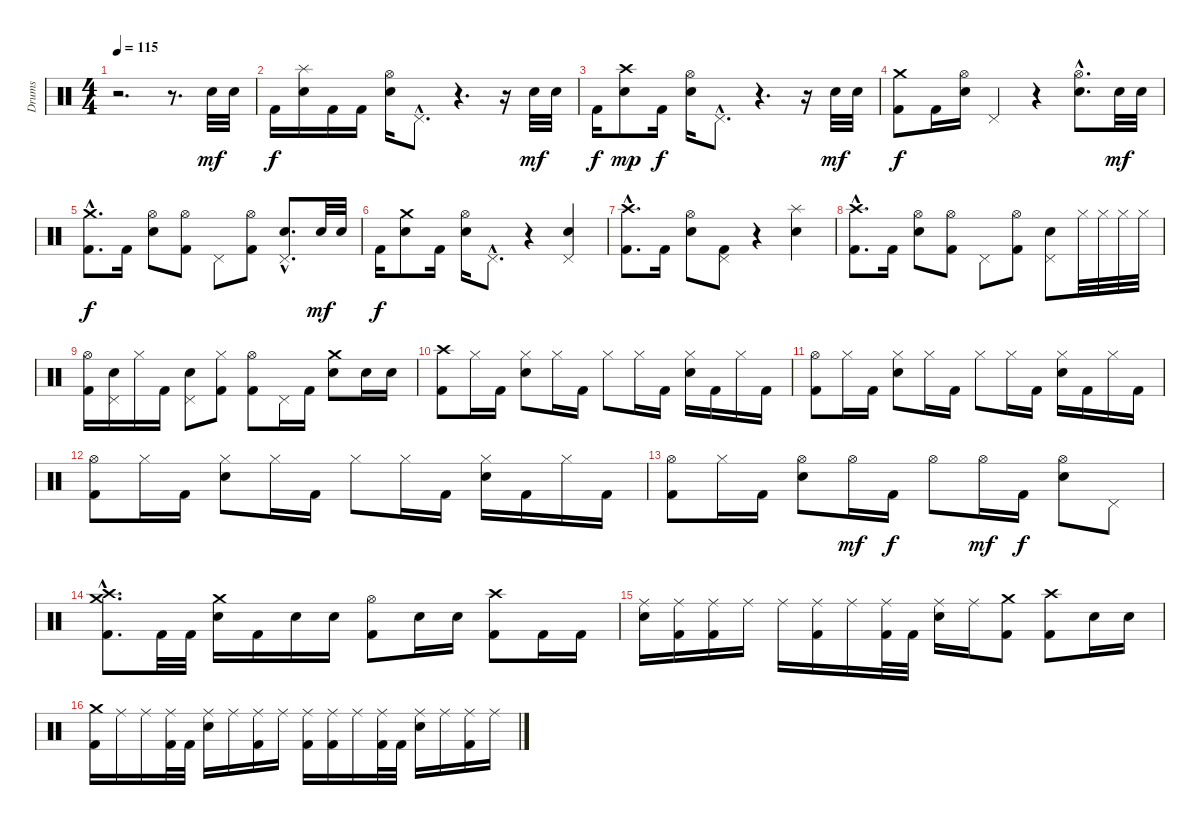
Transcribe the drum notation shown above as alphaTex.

\track ("Drums" "Drums") {instrument percussion}
\staff {score}
\articulation defaults
\ts (4 4)
\tempo 115
\clef neutral
\ks c
r.2{d dy fff} r.8{d} "Electric Snare (hit)".32{dy mf} "Electric Snare (hit)".32 |
"Kick (hit) 2".16{dy f} ("Splash (hit)" "Electric Snare (hit)").16 "Kick (hit) 2".16 "Kick (hit) 2".16 ("Hi-Hat (open)" "Electric Snare (hit)").16 "Pedal Hi-Hat (hit)"{hac}.8{d} r.4{d} r.16 "Electric Snare (hit)".32{dy mf} "Electric Snare (hit)".32 |
"Kick (hit) 2".16{dy f} ("Crash high (hit)" "Electric Snare (hit)").8{dy mp} "Kick (hit) 2".16{dy f} ("Hi-Hat (open)" "Electric Snare (hit)").16 "Pedal Hi-Hat (hit)"{hac}.8{d} r.4{d} r.16 "Electric Snare (hit)".32{dy mf} "Electric Snare (hit)".32 |
("Crash medium (hit)" "Kick (hit) 2").8{dy f} "Kick (hit) 2".16 ("Hi-Hat (open)" "Electric Snare (hit)").16 "Pedal Hi-Hat (hit)".4 r.4 ("Hi-Hat (open)"{hac} "Electric Snare (hit)"{hac}).8{d} "Electric Snare (hit)".32{dy mf} "Electric Snare (hit)".32 |
("Crash medium (hit)"{hac} "Kick (hit) 2"{hac}).8{d dy f} "Kick (hit) 2".16 ("Hi-Hat (open)" "Electric Snare (hit)").8 ("Hi-Hat (open)" "Kick (hit) 2").8 "Pedal Hi-Hat (hit)".8 ("Hi-Hat (open)" "Kick (hit) 2").8 ("Pedal Hi-Hat (hit)"{hac} "Electric Snare (hit)"{hac}).8{d} "Electric Snare (hit)".32{dy mf} "Electric Snare (hit)".32 |
"Kick (hit) 2".16{dy f} ("Crash medium (hit)" "Electric Snare (hit)").8 "Kick (hit) 2".16 ("Hi-Hat (open)" "Electric Snare (hit)").16 "Pedal Hi-Hat (hit)"{hac}.8{d} r.4 ("Pedal Hi-Hat (hit)" "Electric Snare (hit)").4 |
("Crash high (hit)"{hac} "Kick (hit) 2"{hac}).8{d} "Kick (hit) 2".16 ("Hi-Hat (open)" "Electric Snare (hit)").8 ("Pedal Hi-Hat (hit)" "Kick (hit) 2").8 r.4 ("Splash (hit)" "Electric Snare (hit)").4 |
("Crash high (hit)"{hac} "Kick (hit) 2"{hac}).8{d} "Kick (hit) 2".16 ("Hi-Hat (open)" "Electric Snare (hit)").8 ("Hi-Hat (open)" "Kick (hit) 2").8 "Pedal Hi-Hat (hit)".8 ("Hi-Hat (open)" "Kick (hit) 2").8 ("Pedal Hi-Hat (hit)" "Electric Snare (hit)").8 "Hi-Hat (closed)".32 "Hi-Hat (closed)".32 "Hi-Hat (closed)".32 "Hi-Hat (closed)".32 |
("Hi-Hat (open)" "Kick (hit) 2").16 ("Pedal Hi-Hat (hit)" "Electric Snare (hit)").16 "Hi-Hat (closed)".16 "Kick (hit) 2".16 ("Pedal Hi-Hat (hit)" "Electric Snare (hit)").8 ("Hi-Hat (closed)" "Kick (hit) 2").8 ("Hi-Hat (open)" "Kick (hit) 2").8 "Pedal Hi-Hat (hit)".16 "Kick (hit) 2".16 ("Crash medium (hit)" "Electric Snare (hit)").8 "Electric Snare (hit)".16 "Electric Snare (hit)".16 |
("Crash high (hit)" "Kick (hit) 2").8 "Hi-Hat (closed)".16 "Kick (hit) 2".16 ("Hi-Hat (closed)" "Electric Snare (hit)").8 "Hi-Hat (closed)".16 "Kick (hit) 2".16 "Hi-Hat (closed)".8 "Hi-Hat (closed)".16 "Kick (hit) 2".16 ("Hi-Hat (closed)" "Electric Snare (hit)").16 "Kick (hit) 2".16 "Hi-Hat (closed)".16 "Kick (hit) 2".16 |
("Hi-Hat (open)" "Kick (hit) 2").8 "Hi-Hat (closed)".16 "Kick (hit) 2".16 ("Hi-Hat (closed)" "Electric Snare (hit)").8 "Hi-Hat (closed)".16 "Kick (hit) 2".16 "Hi-Hat (closed)".8 "Hi-Hat (closed)".16 "Kick (hit) 2".16 ("Hi-Hat (closed)" "Electric Snare (hit)").16 "Kick (hit) 2".16 "Hi-Hat (closed)".16 "Kick (hit) 2".16 |
("Hi-Hat (open)" "Kick (hit) 2").8 "Hi-Hat (closed)".16 "Kick (hit) 2".16 ("Hi-Hat (closed)" "Electric Snare (hit)").8 "Hi-Hat (closed)".16 "Kick (hit) 2".16 "Hi-Hat (closed)".8 "Hi-Hat (closed)".16 "Kick (hit) 2".16 ("Hi-Hat (closed)" "Electric Snare (hit)").16 "Kick (hit) 2".16 "Hi-Hat (closed)".16 "Kick (hit) 2".16 |
("Hi-Hat (open)" "Kick (hit) 2").8 "Hi-Hat (closed)".16 "Kick (hit) 2".16 ("Hi-Hat (open)" "Electric Snare (hit)").8 "Hi-Hat (open)".16{dy mf} "Kick (hit) 2".16{dy f} "Hi-Hat (open)".8 "Hi-Hat (open)".16{dy mf} "Kick (hit) 2".16{dy f} ("Hi-Hat (open)" "Electric Snare (hit)").8 "Pedal Hi-Hat (hit)".8 |
("Crash medium (hit)"{hac} "Crash high (hit)"{hac} "Kick (hit) 2"{hac}).8{d} "Kick (hit) 2".32 "Kick (hit) 2".32 ("Crash medium (hit)" "Electric Snare (hit)").16 "Kick (hit) 2".16 "Electric Snare (hit)".16 "Electric Snare (hit)".16 ("Hi-Hat (open)" "Kick (hit) 2").8 "Electric Snare (hit)".16 "Electric Snare (hit)".16 ("Crash high (hit)" "Kick (hit) 2").8 "Kick (hit) 2".16 "Kick (hit) 2".16 |
("Ride (middle)" "Electric Snare (hit)").16 ("Ride (middle)" "Kick (hit) 2").16 ("Ride (middle)" "Kick (hit) 2").16 "Ride (middle)".16 "Ride (middle)".16 ("Ride (middle)" "Kick (hit) 2").16 "Ride (middle)".16 ("Ride (middle)" "Kick (hit) 2").32 "Kick (hit) 2".32 ("Ride (middle)" "Electric Snare (hit)").16 "Ride (middle)".16 ("Crash medium (hit)" "Kick (hit) 2").8 ("Crash high (hit)" "Kick (hit) 2").8 "Electric Snare (hit)".16 "Electric Snare (hit)".16 |
("Crash medium (hit)" "Kick (hit) 2").16 "Ride (middle)".16 "Ride (middle)".16 ("Ride (middle)" "Kick (hit) 2").32 "Kick (hit) 2".32 ("Ride (middle)" "Electric Snare (hit)").16 "Ride (middle)".16 ("Ride (middle)" "Kick (hit) 2").16 "Ride (middle)".16 ("Ride (middle)" "Kick (hit) 2").16 ("Ride (middle)" "Kick (hit) 2").16 "Ride (middle)".16 ("Ride (middle)" "Kick (hit) 2").32 "Kick (hit) 2".32 ("Ride (middle)" "Electric Snare (hit)").16 "Ride (middle)".16 ("Ride (middle)" "Kick (hit) 2").16 "Ride (middle)".16
